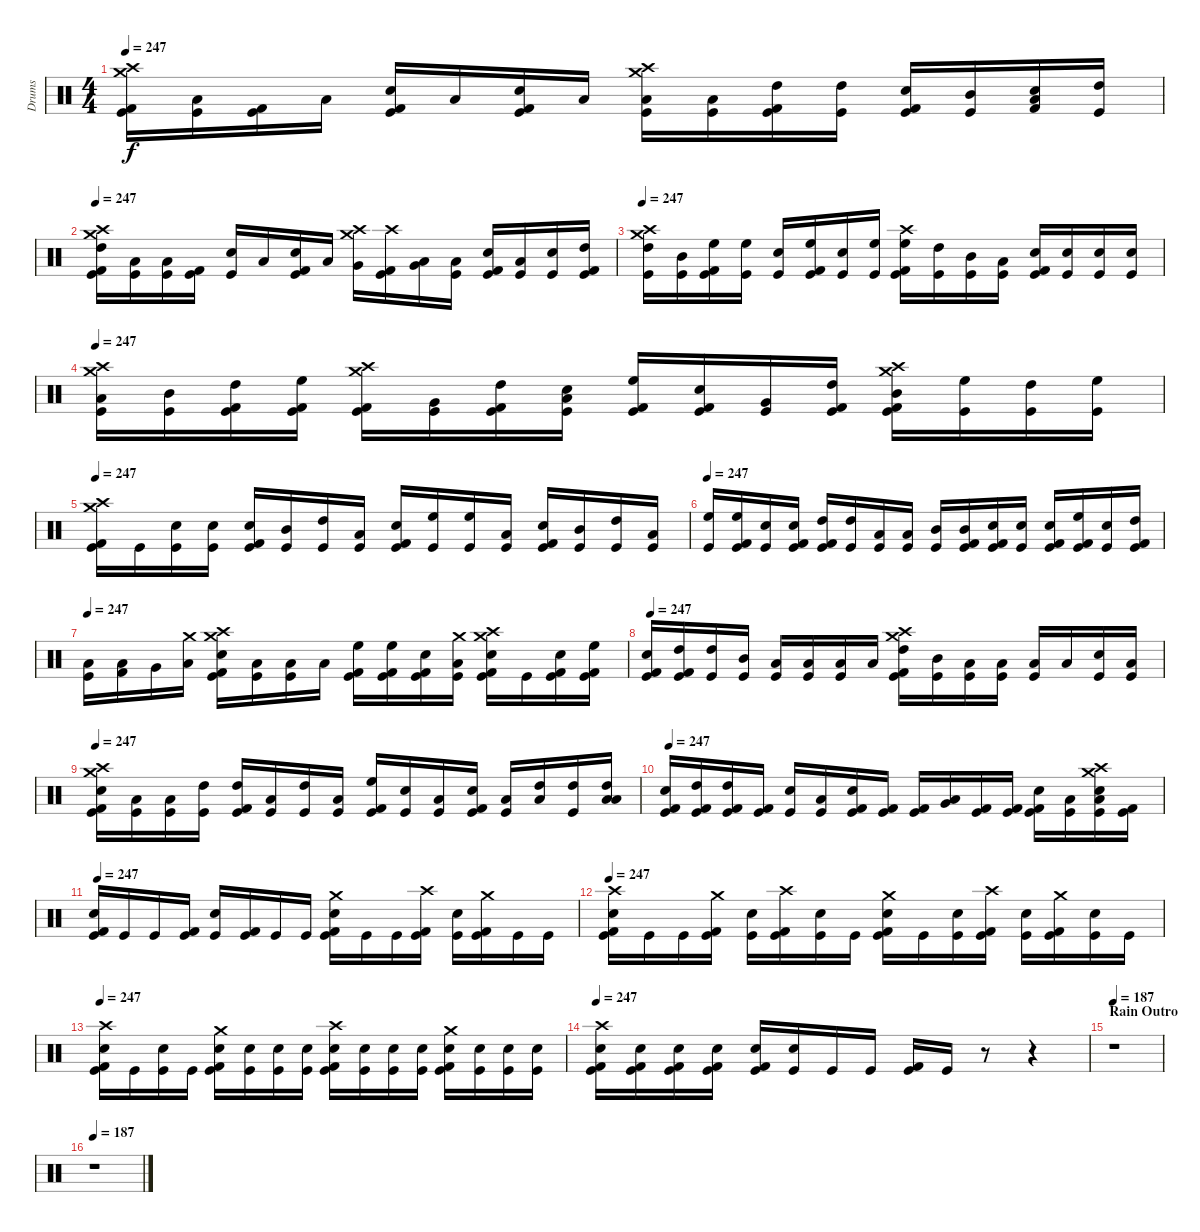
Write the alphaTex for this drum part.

\track ("Drums" "Drums") {instrument percussion}
\staff {score}
\articulation defaults
\ts (4 4)
\tempo 247
\clef neutral
\ks c
("Crash high (hit)" "Crash medium (hit)" "Kick (hit) 2" "Kick (hit)").16{dy f} ("Low Tom (hit)" "Kick (hit)").16 ("Kick (hit) 2" "Kick (hit)").16 "Low Floor Tom (hit)".16 ("Snare (hit) 2" "Kick (hit) 2" "Kick (hit)").16 "Low Floor Tom (hit)".16 ("Snare (hit) 2" "Kick (hit) 2" "Kick (hit)").16 "Low Floor Tom (hit)".16 ("Crash high (hit)" "Crash medium (hit)" "Low Tom (hit)" "Kick (hit)").16 ("Low Tom (hit)" "Kick (hit)").16 ("High Tom (hit)" "Kick (hit) 2" "Kick (hit)").16 ("High Tom (hit)" "Kick (hit)").16 ("Snare (hit) 2" "Kick (hit) 2" "Kick (hit)").16 ("Mid Tom (hit)" "Kick (hit)").16 ("Snare (hit) 2" "Kick (hit) 2" "Low Floor Tom (hit)").16 ("High Tom (hit)" "Kick (hit)").16 |
\tempo 247
("Crash high (hit)" "Crash medium (hit)" "High Tom (hit)" "Kick (hit) 2" "Kick (hit)").16 ("Low Tom (hit)" "Kick (hit)").16 ("Low Tom (hit)" "Kick (hit)").16 ("Kick (hit) 2" "Kick (hit)").16 ("Snare (hit) 2" "Kick (hit)").16 "Low Floor Tom (hit)".16 ("Snare (hit) 2" "Kick (hit) 2" "Kick (hit)").16 "Low Floor Tom (hit)".16 ("Crash high (hit)" "Crash medium (hit)" "Very Low Tom (hit)").16 ("Crash high (hit)" "Kick (hit) 2" "Kick (hit)").16 ("Very Low Tom (hit)" "Low Floor Tom (hit)").16 ("Low Tom (hit)" "Kick (hit)").16 ("Snare (hit) 2" "Kick (hit) 2" "Kick (hit)").16 ("Low Tom (hit)" "Kick (hit)").16 ("Snare (hit) 2" "Kick (hit)").16 ("High Tom (hit)" "Kick (hit) 2" "Kick (hit)").16 |
\tempo 247
("Crash high (hit)" "Crash medium (hit)" "High Tom (hit)" "Kick (hit)").16 ("Mid Tom (hit)" "Kick (hit)").16 ("High Floor Tom (hit)" "Kick (hit) 2" "Kick (hit)").16 ("High Floor Tom (hit)" "Kick (hit)").16 ("Snare (hit) 2" "Kick (hit)").16 ("High Floor Tom (hit)" "Kick (hit) 2" "Kick (hit)").16 ("Snare (hit) 2" "Kick (hit)").16 ("High Floor Tom (hit)" "Kick (hit)").16 ("Crash high (hit)" "High Floor Tom (hit)" "Kick (hit) 2" "Kick (hit)").16 ("High Tom (hit)" "Kick (hit)").16 ("Mid Tom (hit)" "Kick (hit)").16 ("Low Tom (hit)" "Kick (hit)").16 ("Snare (hit) 2" "Kick (hit) 2" "Kick (hit)").16 ("Snare (hit) 2" "Kick (hit)").16 ("Snare (hit) 2" "Kick (hit)").16 ("Snare (hit) 2" "Kick (hit)").16 |
\tempo 247
("Crash high (hit)" "Crash medium (hit)" "Low Tom (hit)" "Kick (hit)").16 ("Mid Tom (hit)" "Kick (hit)").16 ("High Tom (hit)" "Kick (hit) 2" "Kick (hit)").16 ("High Floor Tom (hit)" "Kick (hit) 2" "Kick (hit)").16 ("Crash high (hit)" "Crash medium (hit)" "Kick (hit) 2" "Kick (hit)").16 ("Very Low Tom (hit)" "Kick (hit)").16 ("High Tom (hit)" "Kick (hit) 2" "Kick (hit)").16 ("Snare (hit) 2" "Low Floor Tom (hit)" "Kick (hit)").16 ("High Floor Tom (hit)" "Kick (hit) 2" "Kick (hit)").16 ("Snare (hit) 2" "Kick (hit) 2" "Kick (hit)").16 ("Very Low Tom (hit)" "Kick (hit)").16 ("High Tom (hit)" "Kick (hit) 2" "Kick (hit)").16 ("Crash high (hit)" "Crash medium (hit)" "Mid Tom (hit)" "Kick (hit) 2" "Kick (hit)").16 ("High Floor Tom (hit)" "Kick (hit)").16 ("High Tom (hit)" "Kick (hit)").16 ("High Floor Tom (hit)" "Kick (hit)").16 |
\tempo 247
("Crash high (hit)" "Crash medium (hit)" "Kick (hit) 2" "Kick (hit)").16 "Kick (hit)".16 ("Snare (hit) 2" "Kick (hit)").16 ("Snare (hit) 2" "Kick (hit)").16 ("Snare (hit) 2" "Kick (hit) 2" "Kick (hit)").16 ("Mid Tom (hit)" "Kick (hit)").16 ("High Tom (hit)" "Kick (hit)").16 ("Low Tom (hit)" "Kick (hit)").16 ("Snare (hit) 2" "Kick (hit) 2" "Kick (hit)").16 ("High Floor Tom (hit)" "Kick (hit)").16 ("High Floor Tom (hit)" "Kick (hit)").16 ("Low Tom (hit)" "Kick (hit)").16 ("Snare (hit) 2" "Kick (hit) 2" "Kick (hit)").16 ("Mid Tom (hit)" "Kick (hit)").16 ("High Tom (hit)" "Kick (hit)").16 ("Low Tom (hit)" "Kick (hit)").16 |
\tempo 247
("High Floor Tom (hit)" "Kick (hit)").16 ("High Floor Tom (hit)" "Kick (hit) 2" "Kick (hit)").16 ("Snare (hit) 2" "Kick (hit)").16 ("Snare (hit) 2" "Kick (hit) 2" "Kick (hit)").16 ("High Tom (hit)" "Kick (hit) 2" "Kick (hit)").16 ("High Tom (hit)" "Kick (hit)").16 ("Low Tom (hit)" "Kick (hit)").16 ("Low Tom (hit)" "Kick (hit)").16 ("Mid Tom (hit)" "Kick (hit)").16 ("Mid Tom (hit)" "Kick (hit) 2" "Kick (hit)").16 ("Snare (hit) 2" "Kick (hit) 2" "Kick (hit)").16 ("Snare (hit) 2" "Kick (hit)").16 ("Snare (hit) 2" "Kick (hit) 2" "Kick (hit)").16 ("High Floor Tom (hit)" "Kick (hit) 2" "Kick (hit)").16 ("Snare (hit) 2" "Kick (hit)").16 ("High Tom (hit)" "Kick (hit) 2" "Kick (hit)").16 |
\tempo 247
("Low Tom (hit)" "Kick (hit)").16 ("Kick (hit) 2" "Low Floor Tom (hit)").16 "Very Low Tom (hit)".16 ("Crash medium (hit)" "Low Floor Tom (hit)").16 ("Crash high (hit)" "Crash medium (hit)" "Snare (hit) 2" "Kick (hit) 2" "Kick (hit)").16 ("Low Tom (hit)" "Kick (hit)").16 ("Low Tom (hit)" "Kick (hit)").16 "Low Floor Tom (hit)".16 ("High Floor Tom (hit)" "Kick (hit) 2" "Kick (hit)").16 ("High Floor Tom (hit)" "Kick (hit) 2" "Kick (hit)").16 ("Snare (hit) 2" "Kick (hit) 2" "Kick (hit)").16 ("Crash medium (hit)" "Low Tom (hit)" "Kick (hit)").16 ("Crash high (hit)" "Crash medium (hit)" "Snare (hit) 2" "Kick (hit) 2" "Kick (hit)").16 "Kick (hit)".16 ("Snare (hit) 2" "Kick (hit) 2" "Kick (hit)").16 ("High Floor Tom (hit)" "Kick (hit) 2" "Kick (hit)").16 |
\tempo 247
("Snare (hit) 2" "Kick (hit) 2" "Kick (hit)").16 ("High Tom (hit)" "Kick (hit) 2" "Kick (hit)").16 ("High Tom (hit)" "Kick (hit)").16 ("Mid Tom (hit)" "Kick (hit)").16 ("Low Tom (hit)" "Kick (hit)").16 ("Low Tom (hit)" "Kick (hit)").16 ("Low Tom (hit)" "Kick (hit)").16 "Low Floor Tom (hit)".16 ("Crash high (hit)" "Crash medium (hit)" "High Tom (hit)" "Kick (hit) 2" "Kick (hit)").16 ("Mid Tom (hit)" "Kick (hit)").16 ("Low Tom (hit)" "Kick (hit)").16 ("Low Tom (hit)" "Kick (hit)").16 ("Low Tom (hit)" "Kick (hit)").16 "Low Floor Tom (hit)".16 ("Snare (hit) 2" "Kick (hit)").16 ("Low Tom (hit)" "Kick (hit)").16 |
\tempo 247
("Crash high (hit)" "Crash medium (hit)" "Snare (hit) 2" "Kick (hit) 2" "Kick (hit)").16 ("Low Tom (hit)" "Kick (hit)").16 ("Low Tom (hit)" "Kick (hit)").16 ("High Tom (hit)" "Kick (hit)").16 ("High Tom (hit)" "Kick (hit) 2" "Kick (hit)").16 ("Low Tom (hit)" "Kick (hit)").16 ("High Tom (hit)" "Kick (hit)").16 ("Low Tom (hit)" "Kick (hit)").16 ("High Floor Tom (hit)" "Kick (hit) 2" "Kick (hit)").16 ("Snare (hit) 2" "Kick (hit)").16 ("Low Tom (hit)" "Kick (hit)").16 ("Snare (hit) 2" "Kick (hit) 2" "Kick (hit)").16 ("Low Tom (hit)" "Kick (hit)").16 ("High Tom (hit)" "Low Floor Tom (hit)").16 ("High Tom (hit)" "Kick (hit)").16 ("High Tom (hit)" "Low Tom (hit)" "Low Floor Tom (hit)").16 |
\tempo 247
("Snare (hit) 2" "Kick (hit) 2" "Kick (hit)").16 ("High Tom (hit)" "Kick (hit) 2" "Kick (hit)").16 ("High Tom (hit)" "Kick (hit) 2" "Kick (hit)").16 ("Kick (hit) 2" "Kick (hit)").16 ("Snare (hit) 2" "Kick (hit)").16 ("Low Tom (hit)" "Kick (hit)").16 ("Snare (hit) 2" "Kick (hit) 2" "Kick (hit)").16 ("Kick (hit) 2" "Kick (hit)").16 ("Kick (hit) 2" "Kick (hit)").16 ("Very Low Tom (hit)" "Low Floor Tom (hit)").16 ("Kick (hit) 2" "Kick (hit)").16 ("Kick (hit) 2" "Kick (hit)").16 ("Snare (hit) 2" "Kick (hit) 2" "Kick (hit)").16 ("Low Tom (hit)" "Kick (hit)").16 ("Crash high (hit)" "Crash medium (hit)" "Snare (hit) 2" "Low Tom (hit)" "Kick (hit)").16 ("Kick (hit) 2" "Kick (hit)").16 |
\tempo 247
("Snare (hit) 2" "Kick (hit) 2" "Kick (hit)").16 "Kick (hit)".16 "Kick (hit)".16 ("Kick (hit) 2" "Kick (hit)").16 ("Snare (hit) 2" "Kick (hit)").16 ("Kick (hit) 2" "Kick (hit)").16 "Kick (hit)".16 "Kick (hit)".16 ("Crash medium (hit)" "Snare (hit) 2" "Kick (hit) 2" "Kick (hit)").16 "Kick (hit)".16 "Kick (hit)".16 ("Crash high (hit)" "Kick (hit) 2" "Kick (hit)").16 ("Snare (hit) 2" "Kick (hit)").16 ("Crash medium (hit)" "Kick (hit) 2" "Kick (hit)").16 "Kick (hit)".16 "Kick (hit)".16 |
\tempo 247
("Crash high (hit)" "Snare (hit) 2" "Kick (hit) 2" "Kick (hit)").16 "Kick (hit)".16 "Kick (hit)".16 ("Crash medium (hit)" "Kick (hit) 2" "Kick (hit)").16 ("Snare (hit) 2" "Kick (hit)").16 ("Crash high (hit)" "Kick (hit) 2" "Kick (hit)").16 ("Snare (hit) 2" "Kick (hit)").16 "Kick (hit)".16 ("Crash medium (hit)" "Snare (hit) 2" "Kick (hit) 2" "Kick (hit)").16 "Kick (hit)".16 ("Snare (hit) 2" "Kick (hit)").16 ("Crash high (hit)" "Kick (hit) 2" "Kick (hit)").16 ("Snare (hit) 2" "Kick (hit)").16 ("Crash medium (hit)" "Kick (hit) 2" "Kick (hit)").16 ("Snare (hit) 2" "Kick (hit)").16 "Kick (hit)".16 |
\tempo 247
("Crash high (hit)" "Snare (hit) 2" "Kick (hit) 2" "Kick (hit)").16 "Kick (hit)".16 ("Snare (hit) 2" "Kick (hit)").16 "Kick (hit)".16 ("Crash medium (hit)" "Snare (hit) 2" "Kick (hit) 2" "Kick (hit)").16 ("Snare (hit) 2" "Kick (hit)").16 ("Snare (hit) 2" "Kick (hit)").16 ("Snare (hit) 2" "Kick (hit)").16 ("Crash high (hit)" "Snare (hit) 2" "Kick (hit) 2" "Kick (hit)").16 ("Snare (hit) 2" "Kick (hit)").16 ("Snare (hit) 2" "Kick (hit)").16 ("Snare (hit) 2" "Kick (hit)").16 ("Crash medium (hit)" "Snare (hit) 2" "Kick (hit) 2" "Kick (hit)").16 ("Snare (hit) 2" "Kick (hit)").16 ("Snare (hit) 2" "Kick (hit)").16 ("Snare (hit) 2" "Kick (hit)").16 |
\tempo 247
("Crash high (hit)" "Snare (hit) 2" "Kick (hit) 2" "Kick (hit)").16 ("Snare (hit) 2" "Kick (hit) 2" "Kick (hit)").16 ("Snare (hit) 2" "Kick (hit) 2" "Kick (hit)").16 ("Snare (hit) 2" "Kick (hit) 2" "Kick (hit)").16 ("Snare (hit) 2" "Kick (hit) 2" "Kick (hit)").16 ("Snare (hit) 2" "Kick (hit)").16 "Kick (hit)".16 "Kick (hit)".16 ("Kick (hit) 2" "Kick (hit)").16 "Kick (hit)".16 r.8 r.4 |
\section ("" "Rain Outro")
\tempo 187
r.1 |
\tempo 187
r.1
